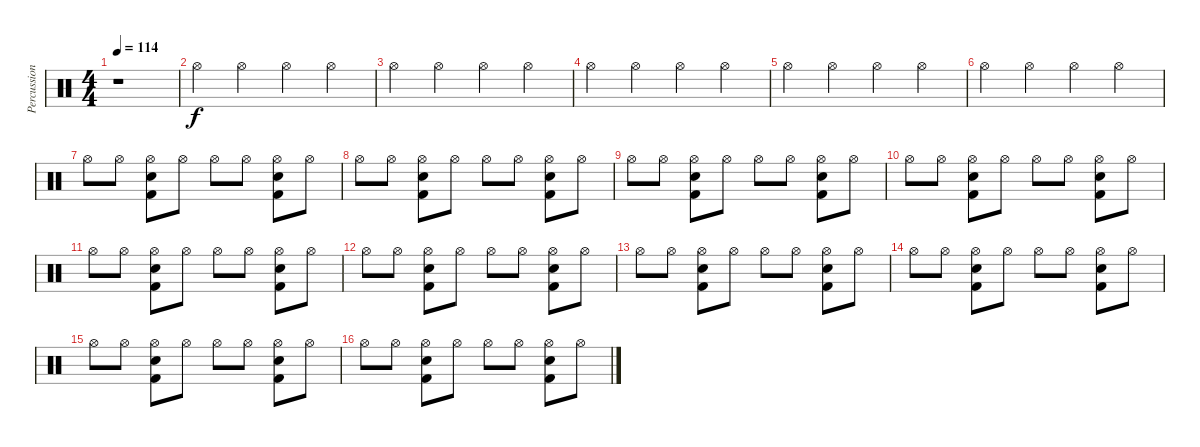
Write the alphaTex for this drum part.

\track ("Percussion" "Percussion") {instrument percussion}
\staff {score}
\articulation defaults
\ts (4 4)
\tempo 114
\clef neutral
\ks c
r.1{dy f} |
"Hi-Hat (open)".4 "Hi-Hat (open)".4 "Hi-Hat (open)".4 "Hi-Hat (open)".4 |
"Hi-Hat (open)".4 "Hi-Hat (open)".4 "Hi-Hat (open)".4 "Hi-Hat (open)".4 |
"Hi-Hat (open)".4 "Hi-Hat (open)".4 "Hi-Hat (open)".4 "Hi-Hat (open)".4 |
"Hi-Hat (open)".4 "Hi-Hat (open)".4 "Hi-Hat (open)".4 "Hi-Hat (open)".4 |
"Hi-Hat (open)".4 "Hi-Hat (open)".4 "Hi-Hat (open)".4 "Hi-Hat (open)".4 |
"Hi-Hat (open)".8 "Hi-Hat (open)".8 ("Hi-Hat (open)" "Snare (hit) 2" "Kick (hit) 2").8 "Hi-Hat (open)".8 "Hi-Hat (open)".8 "Hi-Hat (open)".8 ("Hi-Hat (open)" "Snare (hit) 2" "Kick (hit) 2").8 "Hi-Hat (open)".8 |
"Hi-Hat (open)".8 "Hi-Hat (open)".8 ("Hi-Hat (open)" "Snare (hit) 2" "Kick (hit) 2").8 "Hi-Hat (open)".8 "Hi-Hat (open)".8 "Hi-Hat (open)".8 ("Hi-Hat (open)" "Snare (hit) 2" "Kick (hit) 2").8 "Hi-Hat (open)".8 |
"Hi-Hat (open)".8 "Hi-Hat (open)".8 ("Hi-Hat (open)" "Snare (hit) 2" "Kick (hit) 2").8 "Hi-Hat (open)".8 "Hi-Hat (open)".8 "Hi-Hat (open)".8 ("Hi-Hat (open)" "Snare (hit) 2" "Kick (hit) 2").8 "Hi-Hat (open)".8 |
"Hi-Hat (open)".8 "Hi-Hat (open)".8 ("Hi-Hat (open)" "Snare (hit) 2" "Kick (hit) 2").8 "Hi-Hat (open)".8 "Hi-Hat (open)".8 "Hi-Hat (open)".8 ("Hi-Hat (open)" "Snare (hit) 2" "Kick (hit) 2").8 "Hi-Hat (open)".8 |
"Hi-Hat (open)".8 "Hi-Hat (open)".8 ("Hi-Hat (open)" "Snare (hit) 2" "Kick (hit) 2").8 "Hi-Hat (open)".8 "Hi-Hat (open)".8 "Hi-Hat (open)".8 ("Hi-Hat (open)" "Snare (hit) 2" "Kick (hit) 2").8 "Hi-Hat (open)".8 |
"Hi-Hat (open)".8 "Hi-Hat (open)".8 ("Hi-Hat (open)" "Snare (hit) 2" "Kick (hit) 2").8 "Hi-Hat (open)".8 "Hi-Hat (open)".8 "Hi-Hat (open)".8 ("Hi-Hat (open)" "Snare (hit) 2" "Kick (hit) 2").8 "Hi-Hat (open)".8 |
"Hi-Hat (open)".8 "Hi-Hat (open)".8 ("Hi-Hat (open)" "Snare (hit) 2" "Kick (hit) 2").8 "Hi-Hat (open)".8 "Hi-Hat (open)".8 "Hi-Hat (open)".8 ("Hi-Hat (open)" "Snare (hit) 2" "Kick (hit) 2").8 "Hi-Hat (open)".8 |
"Hi-Hat (open)".8 "Hi-Hat (open)".8 ("Hi-Hat (open)" "Snare (hit) 2" "Kick (hit) 2").8 "Hi-Hat (open)".8 "Hi-Hat (open)".8 "Hi-Hat (open)".8 ("Hi-Hat (open)" "Snare (hit) 2" "Kick (hit) 2").8 "Hi-Hat (open)".8 |
"Hi-Hat (open)".8 "Hi-Hat (open)".8 ("Hi-Hat (open)" "Snare (hit) 2" "Kick (hit) 2").8 "Hi-Hat (open)".8 "Hi-Hat (open)".8 "Hi-Hat (open)".8 ("Hi-Hat (open)" "Snare (hit) 2" "Kick (hit) 2").8 "Hi-Hat (open)".8 |
"Hi-Hat (open)".8 "Hi-Hat (open)".8 ("Hi-Hat (open)" "Snare (hit) 2" "Kick (hit) 2").8 "Hi-Hat (open)".8 "Hi-Hat (open)".8 "Hi-Hat (open)".8 ("Hi-Hat (open)" "Snare (hit) 2" "Kick (hit) 2").8 "Hi-Hat (open)".8
